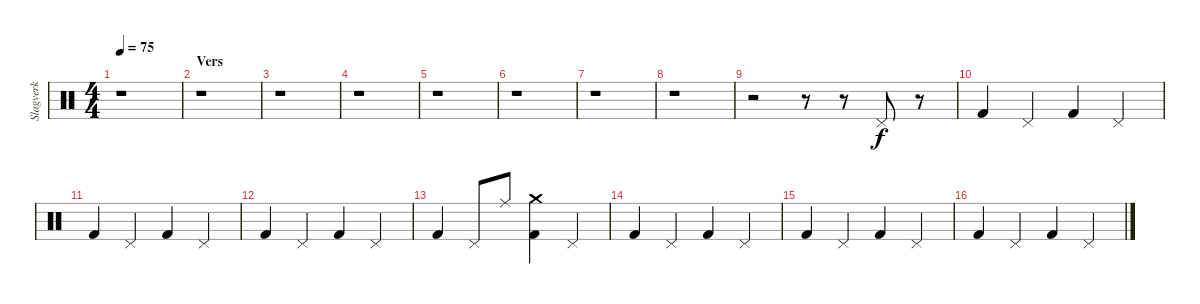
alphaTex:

\track ("Slagverk" "Slagverk") {instrument percussion}
\staff {score}
\articulation defaults
\ts (4 4)
\tempo 75
\clef neutral
\ks c
r.1{dy f} |
\section ("" "Vers")
r.1 |
r.1 |
r.1 |
r.1 |
r.1 |
r.1 |
r.1 |
r.2 r.8 r.8 "Pedal Hi-Hat (hit)".8 r.8 |
"Kick (hit) 2".4 "Pedal Hi-Hat (hit)".4 "Kick (hit) 2".4 "Pedal Hi-Hat (hit)".4 |
"Kick (hit) 2".4 "Pedal Hi-Hat (hit)".4 "Kick (hit) 2".4 "Pedal Hi-Hat (hit)".4 |
"Kick (hit) 2".4 "Pedal Hi-Hat (hit)".4 "Kick (hit) 2".4 "Pedal Hi-Hat (hit)".4 |
"Kick (hit) 2".4 "Pedal Hi-Hat (hit)".8 "Ride (middle)".8 ("Crash medium (hit)" "Kick (hit) 2").4 "Pedal Hi-Hat (hit)".4 |
"Kick (hit) 2".4 "Pedal Hi-Hat (hit)".4 "Kick (hit) 2".4 "Pedal Hi-Hat (hit)".4 |
"Kick (hit) 2".4 "Pedal Hi-Hat (hit)".4 "Kick (hit) 2".4 "Pedal Hi-Hat (hit)".4 |
"Kick (hit) 2".4 "Pedal Hi-Hat (hit)".4 "Kick (hit) 2".4 "Pedal Hi-Hat (hit)".4
